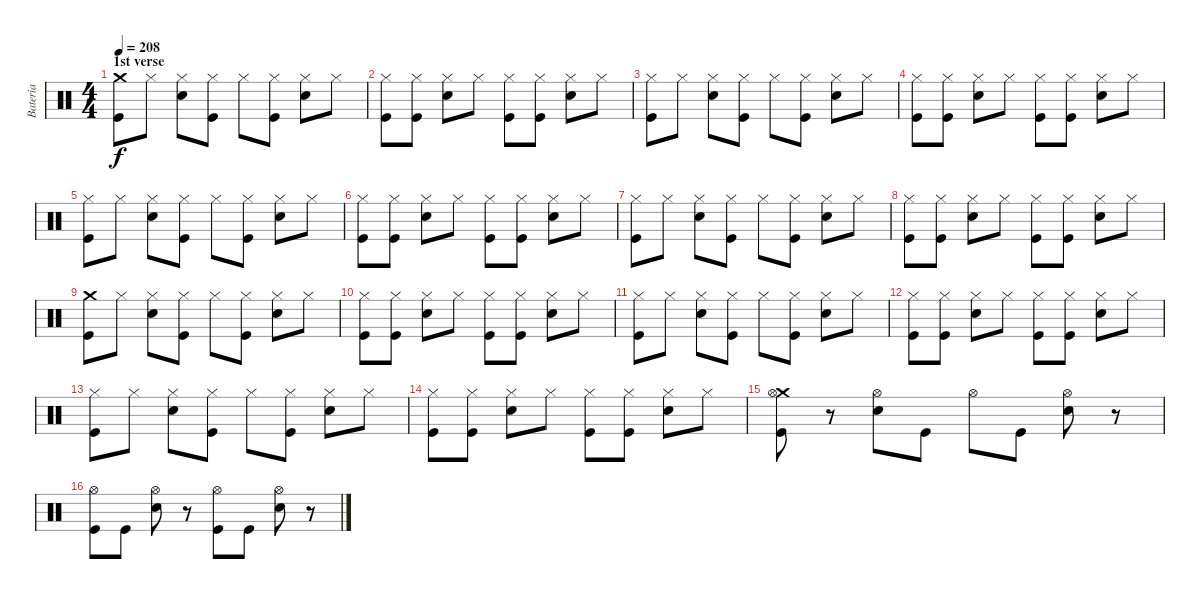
\track ("Bateria" "Bateria") {instrument percussion}
\staff {score}
\articulation defaults
\ts (4 4)
\section ("" "1st verse")
\tempo 208
\clef neutral
\ks c
("Crash medium (hit)" "Kick (hit)").8{dy f} "Hi-Hat (closed)".8 ("Hi-Hat (closed)" "Electric Snare (hit)").8 ("Hi-Hat (closed)" "Kick (hit)").8 "Hi-Hat (closed)".8 ("Hi-Hat (closed)" "Kick (hit)").8 ("Hi-Hat (closed)" "Electric Snare (hit)").8 "Hi-Hat (closed)".8 |
("Hi-Hat (closed)" "Kick (hit)").8 ("Hi-Hat (closed)" "Kick (hit)").8 ("Hi-Hat (closed)" "Electric Snare (hit)").8 "Hi-Hat (closed)".8 ("Hi-Hat (closed)" "Kick (hit)").8 ("Hi-Hat (closed)" "Kick (hit)").8 ("Hi-Hat (closed)" "Electric Snare (hit)").8 "Hi-Hat (closed)".8 |
("Hi-Hat (closed)" "Kick (hit)").8 "Hi-Hat (closed)".8 ("Hi-Hat (closed)" "Electric Snare (hit)").8 ("Hi-Hat (closed)" "Kick (hit)").8 "Hi-Hat (closed)".8 ("Hi-Hat (closed)" "Kick (hit)").8 ("Hi-Hat (closed)" "Electric Snare (hit)").8 "Hi-Hat (closed)".8 |
("Hi-Hat (closed)" "Kick (hit)").8 ("Hi-Hat (closed)" "Kick (hit)").8 ("Hi-Hat (closed)" "Electric Snare (hit)").8 "Hi-Hat (closed)".8 ("Hi-Hat (closed)" "Kick (hit)").8 ("Hi-Hat (closed)" "Kick (hit)").8 ("Hi-Hat (closed)" "Electric Snare (hit)").8 "Hi-Hat (closed)".8 |
("Hi-Hat (closed)" "Kick (hit)").8 "Hi-Hat (closed)".8 ("Hi-Hat (closed)" "Electric Snare (hit)").8 ("Hi-Hat (closed)" "Kick (hit)").8 "Hi-Hat (closed)".8 ("Hi-Hat (closed)" "Kick (hit)").8 ("Hi-Hat (closed)" "Electric Snare (hit)").8 "Hi-Hat (closed)".8 |
("Hi-Hat (closed)" "Kick (hit)").8 ("Hi-Hat (closed)" "Kick (hit)").8 ("Hi-Hat (closed)" "Electric Snare (hit)").8 "Hi-Hat (closed)".8 ("Hi-Hat (closed)" "Kick (hit)").8 ("Hi-Hat (closed)" "Kick (hit)").8 ("Hi-Hat (closed)" "Electric Snare (hit)").8 "Hi-Hat (closed)".8 |
("Hi-Hat (closed)" "Kick (hit)").8 "Hi-Hat (closed)".8 ("Hi-Hat (closed)" "Electric Snare (hit)").8 ("Hi-Hat (closed)" "Kick (hit)").8 "Hi-Hat (closed)".8 ("Hi-Hat (closed)" "Kick (hit)").8 ("Hi-Hat (closed)" "Electric Snare (hit)").8 "Hi-Hat (closed)".8 |
("Hi-Hat (closed)" "Kick (hit)").8 ("Hi-Hat (closed)" "Kick (hit)").8 ("Hi-Hat (closed)" "Electric Snare (hit)").8 "Hi-Hat (closed)".8 ("Hi-Hat (closed)" "Kick (hit)").8 ("Hi-Hat (closed)" "Kick (hit)").8 ("Hi-Hat (closed)" "Electric Snare (hit)").8 "Hi-Hat (closed)".8 |
("Crash medium (hit)" "Kick (hit)").8 "Hi-Hat (closed)".8 ("Hi-Hat (closed)" "Electric Snare (hit)").8 ("Hi-Hat (closed)" "Kick (hit)").8 "Hi-Hat (closed)".8 ("Hi-Hat (closed)" "Kick (hit)").8 ("Hi-Hat (closed)" "Electric Snare (hit)").8 "Hi-Hat (closed)".8 |
("Hi-Hat (closed)" "Kick (hit)").8 ("Hi-Hat (closed)" "Kick (hit)").8 ("Hi-Hat (closed)" "Electric Snare (hit)").8 "Hi-Hat (closed)".8 ("Hi-Hat (closed)" "Kick (hit)").8 ("Hi-Hat (closed)" "Kick (hit)").8 ("Hi-Hat (closed)" "Electric Snare (hit)").8 "Hi-Hat (closed)".8 |
("Hi-Hat (closed)" "Kick (hit)").8 "Hi-Hat (closed)".8 ("Hi-Hat (closed)" "Electric Snare (hit)").8 ("Hi-Hat (closed)" "Kick (hit)").8 "Hi-Hat (closed)".8 ("Hi-Hat (closed)" "Kick (hit)").8 ("Hi-Hat (closed)" "Electric Snare (hit)").8 "Hi-Hat (closed)".8 |
("Hi-Hat (closed)" "Kick (hit)").8 ("Hi-Hat (closed)" "Kick (hit)").8 ("Hi-Hat (closed)" "Electric Snare (hit)").8 "Hi-Hat (closed)".8 ("Hi-Hat (closed)" "Kick (hit)").8 ("Hi-Hat (closed)" "Kick (hit)").8 ("Hi-Hat (closed)" "Electric Snare (hit)").8 "Hi-Hat (closed)".8 |
("Hi-Hat (closed)" "Kick (hit)").8 "Hi-Hat (closed)".8 ("Hi-Hat (closed)" "Electric Snare (hit)").8 ("Hi-Hat (closed)" "Kick (hit)").8 "Hi-Hat (closed)".8 ("Hi-Hat (closed)" "Kick (hit)").8 ("Hi-Hat (closed)" "Electric Snare (hit)").8 "Hi-Hat (closed)".8 |
("Hi-Hat (closed)" "Kick (hit)").8 ("Hi-Hat (closed)" "Kick (hit)").8 ("Hi-Hat (closed)" "Electric Snare (hit)").8 "Hi-Hat (closed)".8 ("Hi-Hat (closed)" "Kick (hit)").8 ("Hi-Hat (closed)" "Kick (hit)").8 ("Hi-Hat (closed)" "Electric Snare (hit)").8 "Hi-Hat (closed)".8 |
("Crash medium (hit)" "Hi-Hat (open)" "Kick (hit)").8 r.8 ("Hi-Hat (open)" "Electric Snare (hit)").8 "Kick (hit)".8 "Hi-Hat (open)".8 "Kick (hit)".8 ("Hi-Hat (open)" "Electric Snare (hit)").8 r.8 |
("Hi-Hat (open)" "Kick (hit)").8 "Kick (hit)".8 ("Hi-Hat (open)" "Electric Snare (hit)").8 r.8 ("Hi-Hat (open)" "Kick (hit)").8 "Kick (hit)".8 ("Hi-Hat (open)" "Electric Snare (hit)").8 r.8
